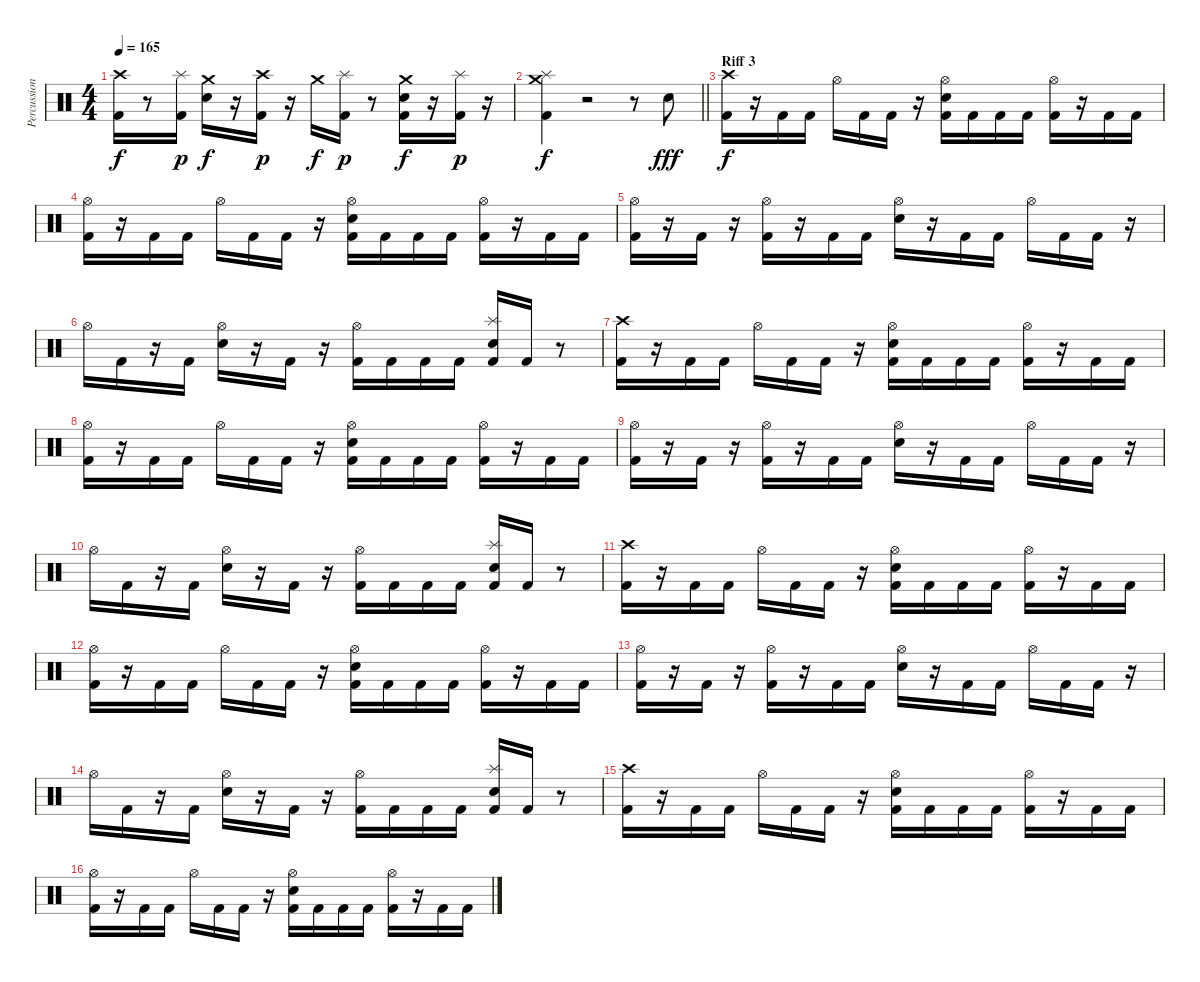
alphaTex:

\track ("Percussion" "Percussion") {instrument percussion}
\staff {score}
\articulation defaults
\ts (4 4)
\tempo 165
\clef neutral
\ks c
("Kick (hit) 2" "Crash high (hit)").16{dy f} r.8 ("Kick (hit) 2" "Splash (hit)").16{dy p} ("Snare (hit) 2" "Crash medium (hit)").16{dy f} r.16 ("Kick (hit) 2" "Crash high (hit)").16{dy p} r.16 "Crash medium (hit)".16{dy f} ("Kick (hit) 2" "Splash (hit)").16{dy p} r.8 ("Kick (hit) 2" "Snare (hit) 2" "Crash medium (hit)").16{dy f} r.16 ("Kick (hit) 2" "Splash (hit)").16{dy p} r.16 |
\barLineRight lightlight
("Kick (hit) 2" "Splash (hit)" "Crash medium (hit)").4{dy f} r.2 r.8 "Snare (hit) 2".8{dy fff} |
\section ("" "Riff 3")
("Kick (hit) 2" "Crash high (hit)").16{dy f} r.16 "Kick (hit) 2".16 "Kick (hit) 2".16 "Hi-Hat (open)".16 "Kick (hit) 2".16 "Kick (hit) 2".16 r.16 ("Kick (hit) 2" "Snare (hit) 2" "Hi-Hat (open)").16 "Kick (hit) 2".16 "Kick (hit) 2".16 "Kick (hit) 2".16 ("Kick (hit) 2" "Hi-Hat (open)").16 r.16 "Kick (hit) 2".16 "Kick (hit) 2".16 |
("Kick (hit) 2" "Hi-Hat (open)").16 r.16 "Kick (hit) 2".16 "Kick (hit) 2".16 "Hi-Hat (open)".16 "Kick (hit) 2".16 "Kick (hit) 2".16 r.16 ("Kick (hit) 2" "Snare (hit) 2" "Hi-Hat (open)").16 "Kick (hit) 2".16 "Kick (hit) 2".16 "Kick (hit) 2".16 ("Kick (hit) 2" "Hi-Hat (open)").16 r.16 "Kick (hit) 2".16 "Kick (hit) 2".16 |
("Kick (hit) 2" "Hi-Hat (open)").16 r.16 "Kick (hit) 2".16 r.16 ("Kick (hit) 2" "Hi-Hat (open)").16 r.16 "Kick (hit) 2".16 "Kick (hit) 2".16 ("Snare (hit) 2" "Hi-Hat (open)").16 r.16 "Kick (hit) 2".16 "Kick (hit) 2".16 "Hi-Hat (open)".16 "Kick (hit) 2".16 "Kick (hit) 2".16 r.16 |
"Hi-Hat (open)".16 "Kick (hit) 2".16 r.16 "Kick (hit) 2".16 ("Snare (hit) 2" "Hi-Hat (open)").16 r.16 "Kick (hit) 2".16 r.16 ("Kick (hit) 2" "Hi-Hat (open)").16 "Kick (hit) 2".16 "Kick (hit) 2".16 "Kick (hit) 2".16 ("Kick (hit) 2" "Snare (hit) 2" "Splash (hit)").16 "Kick (hit) 2".16 r.8 |
("Kick (hit) 2" "Crash high (hit)").16 r.16 "Kick (hit) 2".16 "Kick (hit) 2".16 "Hi-Hat (open)".16 "Kick (hit) 2".16 "Kick (hit) 2".16 r.16 ("Kick (hit) 2" "Snare (hit) 2" "Hi-Hat (open)").16 "Kick (hit) 2".16 "Kick (hit) 2".16 "Kick (hit) 2".16 ("Kick (hit) 2" "Hi-Hat (open)").16 r.16 "Kick (hit) 2".16 "Kick (hit) 2".16 |
("Kick (hit) 2" "Hi-Hat (open)").16 r.16 "Kick (hit) 2".16 "Kick (hit) 2".16 "Hi-Hat (open)".16 "Kick (hit) 2".16 "Kick (hit) 2".16 r.16 ("Kick (hit) 2" "Snare (hit) 2" "Hi-Hat (open)").16 "Kick (hit) 2".16 "Kick (hit) 2".16 "Kick (hit) 2".16 ("Kick (hit) 2" "Hi-Hat (open)").16 r.16 "Kick (hit) 2".16 "Kick (hit) 2".16 |
("Kick (hit) 2" "Hi-Hat (open)").16 r.16 "Kick (hit) 2".16 r.16 ("Kick (hit) 2" "Hi-Hat (open)").16 r.16 "Kick (hit) 2".16 "Kick (hit) 2".16 ("Snare (hit) 2" "Hi-Hat (open)").16 r.16 "Kick (hit) 2".16 "Kick (hit) 2".16 "Hi-Hat (open)".16 "Kick (hit) 2".16 "Kick (hit) 2".16 r.16 |
"Hi-Hat (open)".16 "Kick (hit) 2".16 r.16 "Kick (hit) 2".16 ("Snare (hit) 2" "Hi-Hat (open)").16 r.16 "Kick (hit) 2".16 r.16 ("Kick (hit) 2" "Hi-Hat (open)").16 "Kick (hit) 2".16 "Kick (hit) 2".16 "Kick (hit) 2".16 ("Kick (hit) 2" "Snare (hit) 2" "Splash (hit)").16 "Kick (hit) 2".16 r.8 |
("Kick (hit) 2" "Crash high (hit)").16 r.16 "Kick (hit) 2".16 "Kick (hit) 2".16 "Hi-Hat (open)".16 "Kick (hit) 2".16 "Kick (hit) 2".16 r.16 ("Kick (hit) 2" "Snare (hit) 2" "Hi-Hat (open)").16 "Kick (hit) 2".16 "Kick (hit) 2".16 "Kick (hit) 2".16 ("Kick (hit) 2" "Hi-Hat (open)").16 r.16 "Kick (hit) 2".16 "Kick (hit) 2".16 |
("Kick (hit) 2" "Hi-Hat (open)").16 r.16 "Kick (hit) 2".16 "Kick (hit) 2".16 "Hi-Hat (open)".16 "Kick (hit) 2".16 "Kick (hit) 2".16 r.16 ("Kick (hit) 2" "Snare (hit) 2" "Hi-Hat (open)").16 "Kick (hit) 2".16 "Kick (hit) 2".16 "Kick (hit) 2".16 ("Kick (hit) 2" "Hi-Hat (open)").16 r.16 "Kick (hit) 2".16 "Kick (hit) 2".16 |
("Kick (hit) 2" "Hi-Hat (open)").16 r.16 "Kick (hit) 2".16 r.16 ("Kick (hit) 2" "Hi-Hat (open)").16 r.16 "Kick (hit) 2".16 "Kick (hit) 2".16 ("Snare (hit) 2" "Hi-Hat (open)").16 r.16 "Kick (hit) 2".16 "Kick (hit) 2".16 "Hi-Hat (open)".16 "Kick (hit) 2".16 "Kick (hit) 2".16 r.16 |
"Hi-Hat (open)".16 "Kick (hit) 2".16 r.16 "Kick (hit) 2".16 ("Snare (hit) 2" "Hi-Hat (open)").16 r.16 "Kick (hit) 2".16 r.16 ("Kick (hit) 2" "Hi-Hat (open)").16 "Kick (hit) 2".16 "Kick (hit) 2".16 "Kick (hit) 2".16 ("Kick (hit) 2" "Snare (hit) 2" "Splash (hit)").16 "Kick (hit) 2".16 r.8 |
("Kick (hit) 2" "Crash high (hit)").16 r.16 "Kick (hit) 2".16 "Kick (hit) 2".16 "Hi-Hat (open)".16 "Kick (hit) 2".16 "Kick (hit) 2".16 r.16 ("Kick (hit) 2" "Snare (hit) 2" "Hi-Hat (open)").16 "Kick (hit) 2".16 "Kick (hit) 2".16 "Kick (hit) 2".16 ("Kick (hit) 2" "Hi-Hat (open)").16 r.16 "Kick (hit) 2".16 "Kick (hit) 2".16 |
("Kick (hit) 2" "Hi-Hat (open)").16 r.16 "Kick (hit) 2".16 "Kick (hit) 2".16 "Hi-Hat (open)".16 "Kick (hit) 2".16 "Kick (hit) 2".16 r.16 ("Kick (hit) 2" "Snare (hit) 2" "Hi-Hat (open)").16 "Kick (hit) 2".16 "Kick (hit) 2".16 "Kick (hit) 2".16 ("Kick (hit) 2" "Hi-Hat (open)").16 r.16 "Kick (hit) 2".16 "Kick (hit) 2".16
